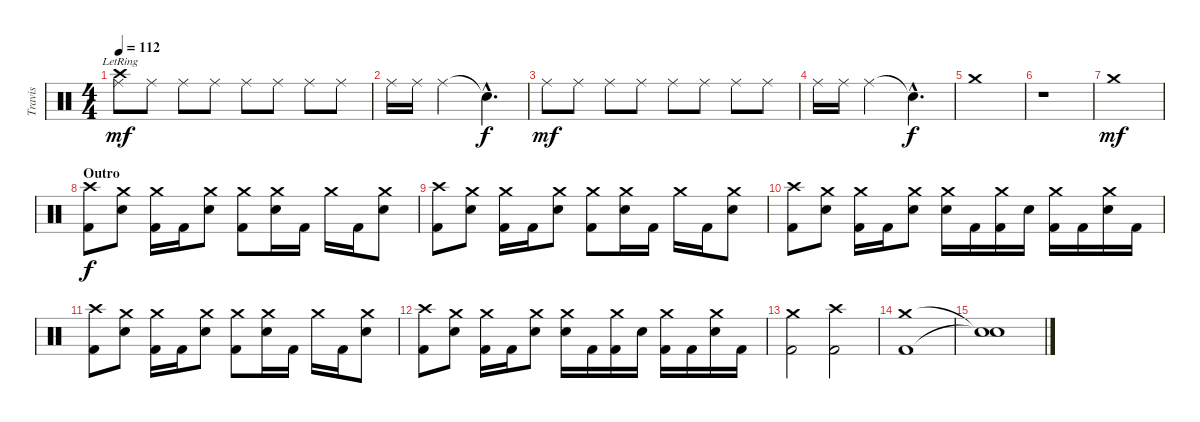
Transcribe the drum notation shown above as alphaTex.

\track ("Travis" "Travis") {instrument percussion}
\staff {score}
\articulation defaults
\ts (4 4)
\tempo 112
\clef neutral
\ks c
("Crash high (hit)"{lr} "Ride (middle)").8{dy mf} "Ride (middle)".8 "Ride (middle)".8 "Ride (middle)".8 "Ride (middle)".8 "Ride (middle)".8 "Ride (middle)".8 "Ride (middle)".8 |
"Ride (middle)".16 "Ride (middle)".16 "Ride (middle)".2 "Snare (hit)"{hac t}.4{d dy f} |
"Ride (middle)".8{dy mf} "Ride (middle)".8 "Ride (middle)".8 "Ride (middle)".8 "Ride (middle)".8 "Ride (middle)".8 "Ride (middle)".8 "Ride (middle)".8 |
"Ride (middle)".16 "Ride (middle)".16 "Ride (middle)".2 "Snare (hit)"{hac t}.4{d dy f} |
"Crash medium (hit)".1 |
r.1 |
"Crash medium (hit)".1{dy mf} |
\section ("" "Outro")
("Crash high (hit)" "Kick (hit) 2").8{dy f} ("Crash medium (hit)" "Electric Snare (hit)").8 ("Crash medium (hit)" "Kick (hit) 2").16 "Kick (hit) 2".16 ("Crash medium (hit)" "Electric Snare (hit)").8 ("Crash medium (hit)" "Kick (hit) 2").8 ("Crash medium (hit)" "Electric Snare (hit)").16 "Kick (hit) 2".16 "Crash medium (hit)".16 "Kick (hit) 2".16 ("Crash medium (hit)" "Electric Snare (hit)").8 |
("Crash high (hit)" "Kick (hit) 2").8 ("Crash medium (hit)" "Electric Snare (hit)").8 ("Crash medium (hit)" "Kick (hit) 2").16 "Kick (hit) 2".16 ("Crash medium (hit)" "Electric Snare (hit)").8 ("Crash medium (hit)" "Kick (hit) 2").8 ("Crash medium (hit)" "Electric Snare (hit)").16 "Kick (hit) 2".16 "Crash medium (hit)".16 "Kick (hit) 2".16 ("Crash medium (hit)" "Electric Snare (hit)").8 |
("Crash high (hit)" "Kick (hit) 2").8 ("Crash medium (hit)" "Electric Snare (hit)").8 ("Crash medium (hit)" "Kick (hit) 2").16 "Kick (hit) 2".16 ("Crash medium (hit)" "Electric Snare (hit)").8 ("Crash medium (hit)" "Electric Snare (hit)").16 "Kick (hit) 2".16 ("Crash medium (hit)" "Kick (hit) 2").16 "Electric Snare (hit)".16 ("Crash medium (hit)" "Kick (hit) 2").16 "Kick (hit) 2".16 ("Crash medium (hit)" "Electric Snare (hit)").16 "Kick (hit) 2".16 |
("Crash high (hit)" "Kick (hit) 2").8 ("Crash medium (hit)" "Electric Snare (hit)").8 ("Crash medium (hit)" "Kick (hit) 2").16 "Kick (hit) 2".16 ("Crash medium (hit)" "Electric Snare (hit)").8 ("Crash medium (hit)" "Kick (hit) 2").8 ("Crash medium (hit)" "Electric Snare (hit)").16 "Kick (hit) 2".16 "Crash medium (hit)".16 "Kick (hit) 2".16 ("Crash medium (hit)" "Electric Snare (hit)").8 |
("Crash high (hit)" "Kick (hit) 2").8 ("Crash medium (hit)" "Electric Snare (hit)").8 ("Crash medium (hit)" "Kick (hit) 2").16 "Kick (hit) 2".16 ("Crash medium (hit)" "Electric Snare (hit)").8 ("Crash medium (hit)" "Electric Snare (hit)").16 "Kick (hit) 2".16 ("Crash medium (hit)" "Kick (hit) 2").16 "Electric Snare (hit)".16 ("Crash medium (hit)" "Kick (hit) 2").16 "Kick (hit) 2".16 ("Crash medium (hit)" "Electric Snare (hit)").16 "Kick (hit) 2".16 |
("Crash medium (hit)" "Kick (hit) 2").2 ("Crash high (hit)" "Kick (hit) 2").2 |
("Crash medium (hit)" "Kick (hit) 2").1 |
("Snare (hit)"{t} "Snare (hit)"{t}).1
